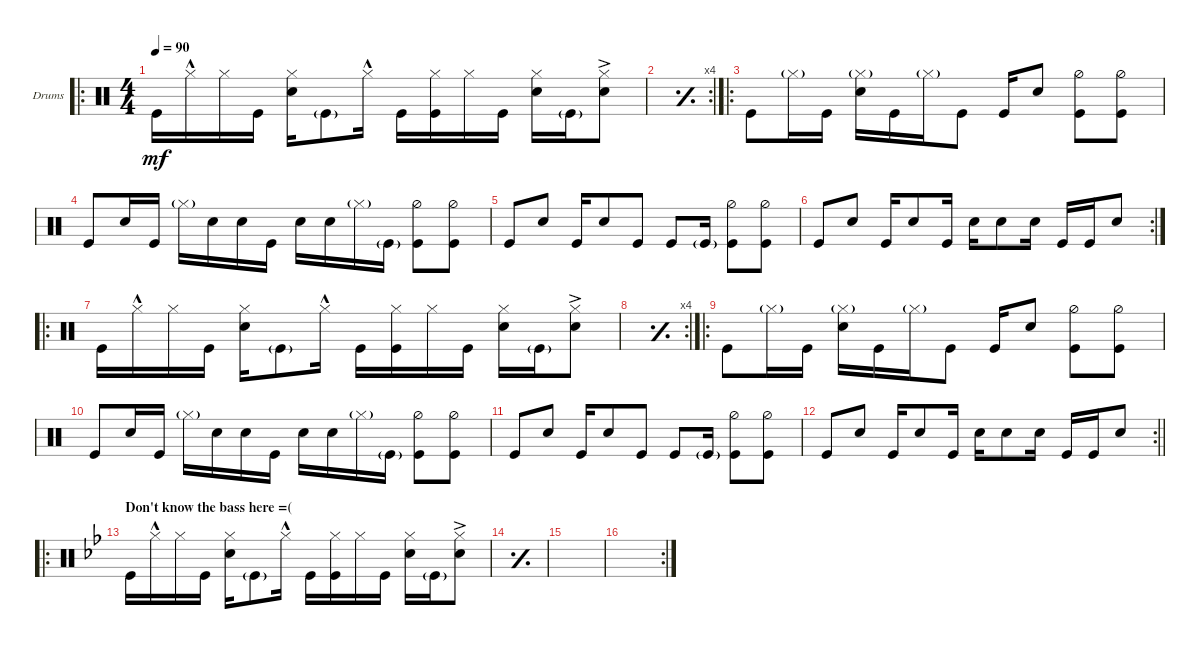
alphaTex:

\bracketExtendMode groupsimilarinstruments
\firstSystemTrackNameOrientation horizontal
\otherSystemsTrackNameOrientation horizontal
\track ("Drumkit" "Drums") {instrument percussion}
\staff {score}
\articulation defaults
\ro
\ts (4 4)
\beaming (8 2 2 2 2)
\tempo 90
\clef neutral
\scale
0.463415
\ks c "Kick (hit)".16{dy mf} "Hi-Hat (closed)"{hac}.16 "Hi-Hat (closed)".16 "Kick (hit)".16
("Snare (hit) 2" "Hi-Hat (closed)").16 "Kick (hit)"{g}.8 "Hi-Hat (closed)"{hac}.16 "Kick (hit)".16 ("Kick (hit)" "Hi-Hat (closed)").16 "Hi-Hat (closed)".16 "Kick (hit)".16 ("Snare (hit) 2" "Hi-Hat (closed)").16 "Kick (hit)"{g}.16 ("Hi-Hat (closed)" "Snare (hit) 2"{ac}).8 |
\rc 4
\simile simple
\scale
0.256098 |
\ro
\simile none
\scale
0.280488 "Kick (hit)".8 "Hi-Hat (closed)"{g}.16 "Kick (hit)".16 ("Snare (hit) 2" "Hi-Hat (closed)"{g}).16 "Kick (hit)".16 "Hi-Hat (closed)"{g}.16 "Kick (hit)".8 "Kick (hit)".16 "Snare (hit) 2".8 ("Kick (hit)" "Hi-Hat (half)").8 ("Kick (hit)" "Hi-Hat (half)").8 |
\scale
0.322034 "Kick (hit)".8 "Snare (hit) 2".16 "Kick (hit)".16 "Hi-Hat (closed)"{g}.16 "Snare (hit) 2".16 "Snare (hit) 2".16 "Kick (hit)".16 "Snare (hit) 2".16 "Snare (hit) 2".16 "Hi-Hat (closed)"{g}.16 "Kick (hit)"{g}.16 ("Kick (hit)" "Hi-Hat (half)").8 ("Kick (hit)" "Hi-Hat (half)").8 |
\scale
0.322034 "Kick (hit)".8 "Snare (hit) 2".8 "Kick (hit)".16 "Snare (hit) 2".8 "Kick (hit)".8 "Kick (hit)".8 "Kick (hit)"{g}.16 ("Kick (hit)" "Hi-Hat (half)").8 ("Kick (hit)" "Hi-Hat (half)").8 |
\rc 2
\scale
0.355932 "Kick (hit)".8 "Snare (hit) 2".8 "Kick (hit)".16 "Snare (hit) 2".8 "Kick (hit)".16 "Snare (hit) 2".16 "Snare (hit) 2".8 "Snare (hit) 2".16 "Kick (hit)".16 "Kick (hit)".16 "Snare (hit) 2".8 |
\ro
\scale
0.343284 "Kick (hit)".16 "Hi-Hat (closed)"{hac}.16 "Hi-Hat (closed)".16 "Kick (hit)".16 ("Snare (hit) 2" "Hi-Hat (closed)").16 "Kick (hit)"{g}.8 "Hi-Hat (closed)"{hac}.16 "Kick (hit)".16 ("Kick (hit)" "Hi-Hat (closed)").16 "Hi-Hat (closed)".16 "Kick (hit)".16 ("Snare (hit) 2" "Hi-Hat (closed)").16 "Kick (hit)"{g}.16 ("Hi-Hat (closed)" "Snare (hit) 2"{ac}).8 |
\rc 4
\simile simple
\scale
0.313433 |
\ro
\simile none
\scale
0.343284 "Kick (hit)".8 "Hi-Hat (closed)"{g}.16 "Kick (hit)".16 ("Snare (hit) 2" "Hi-Hat (closed)"{g}).16 "Kick (hit)".16 "Hi-Hat (closed)"{g}.16 "Kick (hit)".8 "Kick (hit)".16 "Snare (hit) 2".8 ("Kick (hit)" "Hi-Hat (half)").8 ("Kick (hit)" "Hi-Hat (half)").8 |
\scale
0.322034 "Kick (hit)".8 "Snare (hit) 2".16 "Kick (hit)".16 "Hi-Hat (closed)"{g}.16 "Snare (hit) 2".16 "Snare (hit) 2".16 "Kick (hit)".16 "Snare (hit) 2".16 "Snare (hit) 2".16 "Hi-Hat (closed)"{g}.16 "Kick (hit)"{g}.16 ("Kick (hit)" "Hi-Hat (half)").8 ("Kick (hit)" "Hi-Hat (half)").8 |
\scale
0.322034 "Kick (hit)".8 "Snare (hit) 2".8 "Kick (hit)".16 "Snare (hit) 2".8 "Kick (hit)".8 "Kick (hit)".8 "Kick (hit)"{g}.16 ("Kick (hit)" "Hi-Hat (half)").8 ("Kick (hit)" "Hi-Hat (half)").8 |
\rc 2
\scale
0.355932
\barLineRight lightlight "Kick (hit)".8 "Snare (hit) 2".8 "Kick (hit)".16 "Snare (hit) 2".8 "Kick (hit)".16 "Snare (hit) 2".16 "Snare (hit) 2".8 "Snare (hit) 2".16 "Kick (hit)".16 "Kick (hit)".16 "Snare (hit) 2".8
|
\ro
\section ("" "Don't know the bass here =(")
\scale
0.495575
\ks bb "Kick (hit)".16 "Hi-Hat (closed)"{hac}.16 "Hi-Hat (closed)".16 "Kick (hit)".16
("Snare (hit) 2" "Hi-Hat (closed)").16 "Kick (hit)"{g}.8 "Hi-Hat (closed)"{hac}.16 "Kick (hit)".16 ("Kick (hit)" "Hi-Hat (closed)").16 "Hi-Hat (closed)".16 "Kick (hit)".16 ("Snare (hit) 2" "Hi-Hat (closed)").16 "Kick (hit)"{g}.16 ("Hi-Hat (closed)" "Snare (hit) 2"{ac}).8 |
\simile simple
\scale
0.252212 |
\scale
0.252212 |
\rc 2
\scale
0.271552
